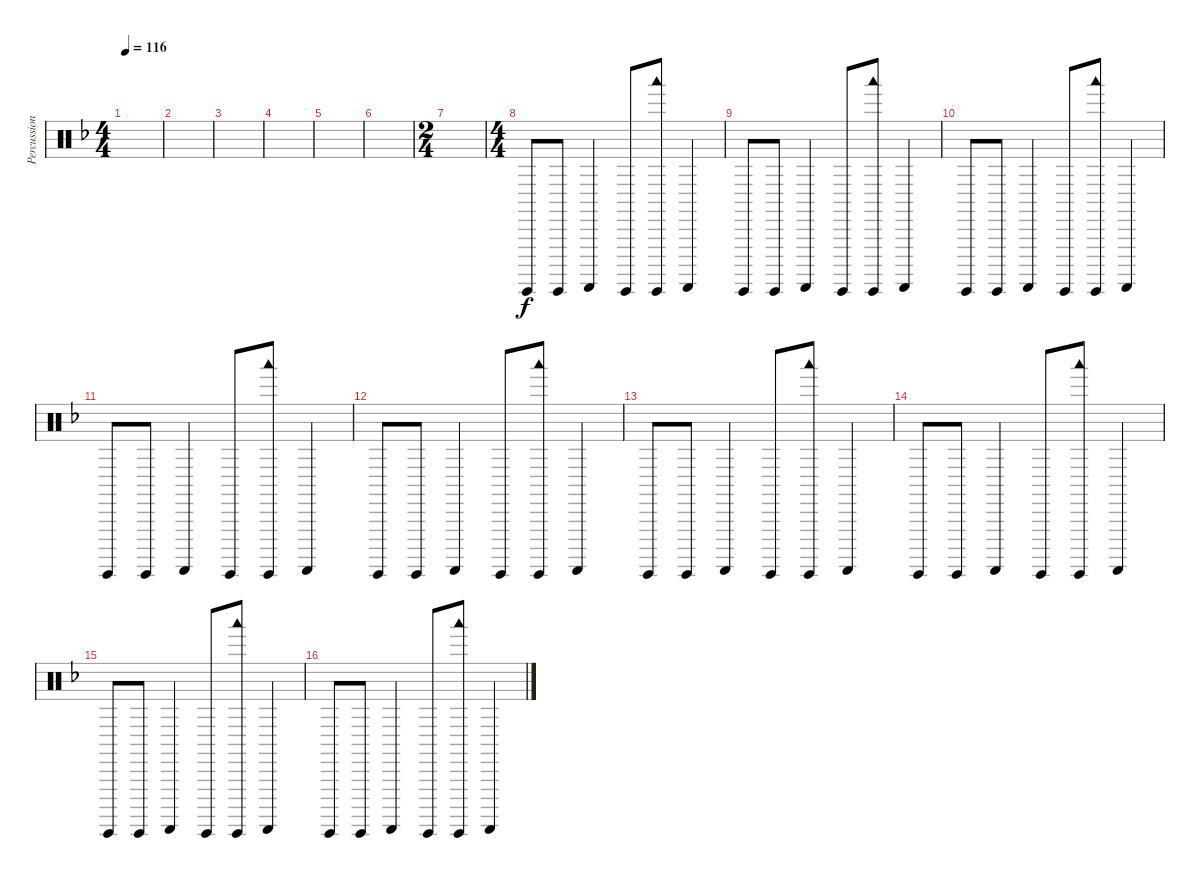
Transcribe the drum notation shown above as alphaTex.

\track ("Percussions" "Percussion") {instrument percussion}
\staff {score}
\articulation defaults
\ts (4 4)
\tempo 116
\clef neutral
\ks dminor
|
|
|
|
|
|
\ts (2 4)
|
\ts (4 4)
"Guiro (hit)".8 "Guiro (hit)".8 "Guiro (scrap-return)".4 "Guiro (hit)".8 ("Guiro (hit)" "Woodblock low (hit)").8 "Guiro (scrap-return)".4 |
"Guiro (hit)".8 "Guiro (hit)".8 "Guiro (scrap-return)".4 "Guiro (hit)".8 ("Guiro (hit)" "Woodblock low (hit)").8 "Guiro (scrap-return)".4 |
"Guiro (hit)".8 "Guiro (hit)".8 "Guiro (scrap-return)".4 "Guiro (hit)".8 ("Guiro (hit)" "Woodblock low (hit)").8 "Guiro (scrap-return)".4 |
"Guiro (hit)".8 "Guiro (hit)".8 "Guiro (scrap-return)".4 "Guiro (hit)".8 ("Guiro (hit)" "Woodblock low (hit)").8 "Guiro (scrap-return)".4 |
"Guiro (hit)".8 "Guiro (hit)".8 "Guiro (scrap-return)".4 "Guiro (hit)".8 ("Guiro (hit)" "Woodblock low (hit)").8 "Guiro (scrap-return)".4 |
"Guiro (hit)".8 "Guiro (hit)".8 "Guiro (scrap-return)".4 "Guiro (hit)".8 ("Guiro (hit)" "Woodblock low (hit)").8 "Guiro (scrap-return)".4 |
"Guiro (hit)".8 "Guiro (hit)".8 "Guiro (scrap-return)".4 "Guiro (hit)".8 ("Guiro (hit)" "Woodblock low (hit)").8 "Guiro (scrap-return)".4 |
"Guiro (hit)".8 "Guiro (hit)".8 "Guiro (scrap-return)".4 "Guiro (hit)".8 ("Guiro (hit)" "Woodblock low (hit)").8 "Guiro (scrap-return)".4 |
"Guiro (hit)".8 "Guiro (hit)".8 "Guiro (scrap-return)".4 "Guiro (hit)".8 ("Guiro (hit)" "Woodblock low (hit)").8 "Guiro (scrap-return)".4
